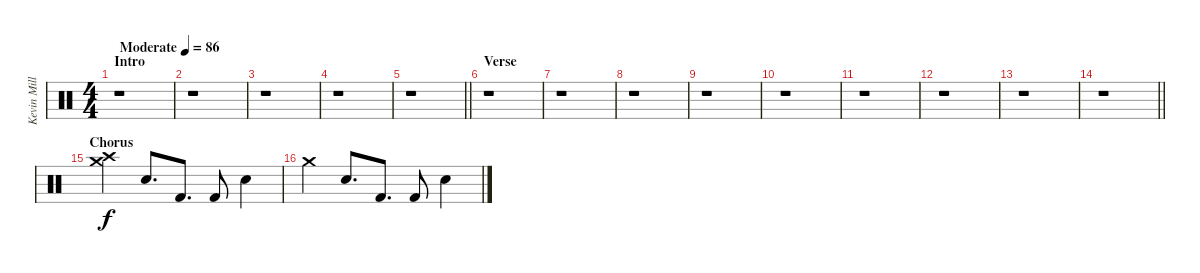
\track ("Kevin Miller (Drums)" "Kevin Mill") {instrument percussion}
\staff {score}
\articulation defaults
\ts (4 4)
\section ("" "Intro")
\tempo (86 "Moderate")
\clef neutral
\ks c
r.1{dy f} |
r.1 |
r.1 |
r.1 |
\barLineRight lightlight
r.1 |
\section ("" "Verse")
r.1 |
r.1 |
r.1 |
r.1 |
r.1 |
r.1 |
r.1 |
r.1 |
\barLineRight lightlight
r.1 |
\section ("" "Chorus")
("Crash medium (hit)" "Crash high (hit)").4 "Electric Snare (hit)".8{d} "Kick (hit) 2".8{d} "Kick (hit) 2".8 "Electric Snare (hit)".4 |
"Crash medium (hit)".4 "Electric Snare (hit)".8{d} "Kick (hit) 2".8{d} "Kick (hit) 2".8 "Electric Snare (hit)".4
